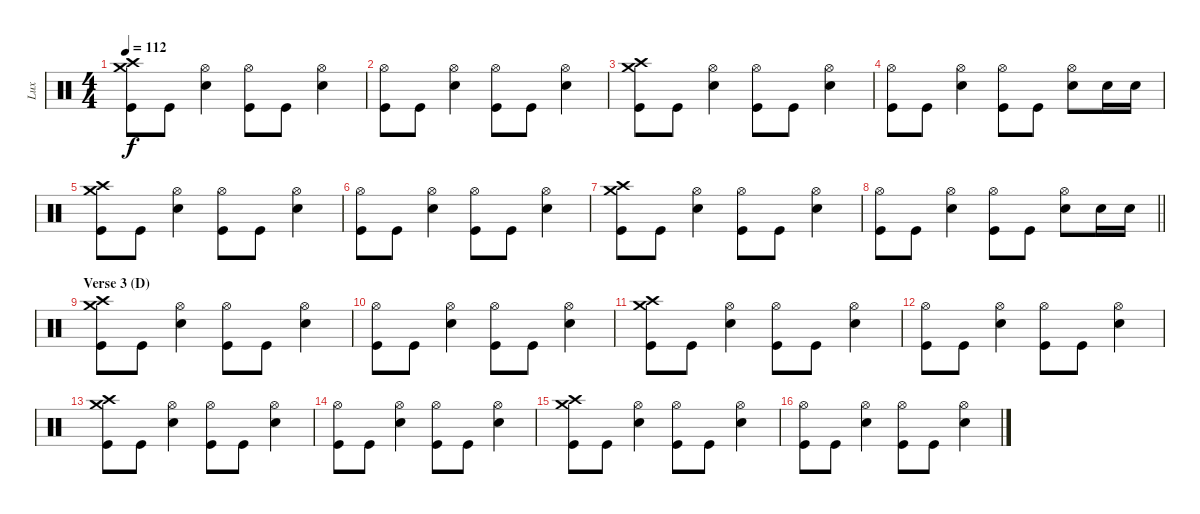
\track ("Lux" "Lux") {instrument percussion bank 32}
\staff {score}
\articulation defaults
\ts (4 4)
\tempo 112
\clef neutral
\ks c
("Crash high (hit)" "Crash medium (hit)" "Kick (hit)").8{dy f} "Kick (hit)".8 ("Hi-Hat (open)" "Snare (hit) 2").4 ("Hi-Hat (open)" "Kick (hit)").8 "Kick (hit)".8 ("Hi-Hat (open)" "Snare (hit) 2").4 |
("Hi-Hat (open)" "Kick (hit)").8 "Kick (hit)".8 ("Hi-Hat (open)" "Snare (hit) 2").4 ("Hi-Hat (open)" "Kick (hit)").8 "Kick (hit)".8 ("Hi-Hat (open)" "Snare (hit) 2").4 |
("Crash high (hit)" "Crash medium (hit)" "Kick (hit)").8 "Kick (hit)".8 ("Hi-Hat (open)" "Snare (hit) 2").4 ("Hi-Hat (open)" "Kick (hit)").8 "Kick (hit)".8 ("Hi-Hat (open)" "Snare (hit) 2").4 |
("Hi-Hat (open)" "Kick (hit)").8 "Kick (hit)".8 ("Hi-Hat (open)" "Snare (hit) 2").4 ("Hi-Hat (open)" "Kick (hit)").8 "Kick (hit)".8 ("Hi-Hat (open)" "Snare (hit) 2").8 "Snare (hit) 2".16 "Snare (hit) 2".16 |
("Crash high (hit)" "Crash medium (hit)" "Kick (hit)").8 "Kick (hit)".8 ("Hi-Hat (open)" "Snare (hit) 2").4 ("Hi-Hat (open)" "Kick (hit)").8 "Kick (hit)".8 ("Hi-Hat (open)" "Snare (hit) 2").4 |
("Hi-Hat (open)" "Kick (hit)").8 "Kick (hit)".8 ("Hi-Hat (open)" "Snare (hit) 2").4 ("Hi-Hat (open)" "Kick (hit)").8 "Kick (hit)".8 ("Hi-Hat (open)" "Snare (hit) 2").4 |
("Crash high (hit)" "Crash medium (hit)" "Kick (hit)").8 "Kick (hit)".8 ("Hi-Hat (open)" "Snare (hit) 2").4 ("Hi-Hat (open)" "Kick (hit)").8 "Kick (hit)".8 ("Hi-Hat (open)" "Snare (hit) 2").4 |
\barLineRight lightlight
("Hi-Hat (open)" "Kick (hit)").8 "Kick (hit)".8 ("Hi-Hat (open)" "Snare (hit) 2").4 ("Hi-Hat (open)" "Kick (hit)").8 "Kick (hit)".8 ("Hi-Hat (open)" "Snare (hit) 2").8 "Snare (hit) 2".16 "Snare (hit) 2".16 |
\section ("" "Verse 3 (D)")
("Crash high (hit)" "Crash medium (hit)" "Kick (hit)").8 "Kick (hit)".8 ("Hi-Hat (open)" "Snare (hit) 2").4 ("Hi-Hat (open)" "Kick (hit)").8 "Kick (hit)".8 ("Hi-Hat (open)" "Snare (hit) 2").4 |
("Hi-Hat (open)" "Kick (hit)").8 "Kick (hit)".8 ("Hi-Hat (open)" "Snare (hit) 2").4 ("Hi-Hat (open)" "Kick (hit)").8 "Kick (hit)".8 ("Hi-Hat (open)" "Snare (hit) 2").4 |
("Crash high (hit)" "Crash medium (hit)" "Kick (hit)").8 "Kick (hit)".8 ("Hi-Hat (open)" "Snare (hit) 2").4 ("Hi-Hat (open)" "Kick (hit)").8 "Kick (hit)".8 ("Hi-Hat (open)" "Snare (hit) 2").4 |
("Hi-Hat (open)" "Kick (hit)").8 "Kick (hit)".8 ("Hi-Hat (open)" "Snare (hit) 2").4 ("Hi-Hat (open)" "Kick (hit)").8 "Kick (hit)".8 ("Hi-Hat (open)" "Snare (hit) 2").4 |
("Crash high (hit)" "Crash medium (hit)" "Kick (hit)").8 "Kick (hit)".8 ("Hi-Hat (open)" "Snare (hit) 2").4 ("Hi-Hat (open)" "Kick (hit)").8 "Kick (hit)".8 ("Hi-Hat (open)" "Snare (hit) 2").4 |
("Hi-Hat (open)" "Kick (hit)").8 "Kick (hit)".8 ("Hi-Hat (open)" "Snare (hit) 2").4 ("Hi-Hat (open)" "Kick (hit)").8 "Kick (hit)".8 ("Hi-Hat (open)" "Snare (hit) 2").4 |
("Crash high (hit)" "Crash medium (hit)" "Kick (hit)").8 "Kick (hit)".8 ("Hi-Hat (open)" "Snare (hit) 2").4 ("Hi-Hat (open)" "Kick (hit)").8 "Kick (hit)".8 ("Hi-Hat (open)" "Snare (hit) 2").4 |
("Hi-Hat (open)" "Kick (hit)").8 "Kick (hit)".8 ("Hi-Hat (open)" "Snare (hit) 2").4 ("Hi-Hat (open)" "Kick (hit)").8 "Kick (hit)".8 ("Hi-Hat (open)" "Snare (hit) 2").4
